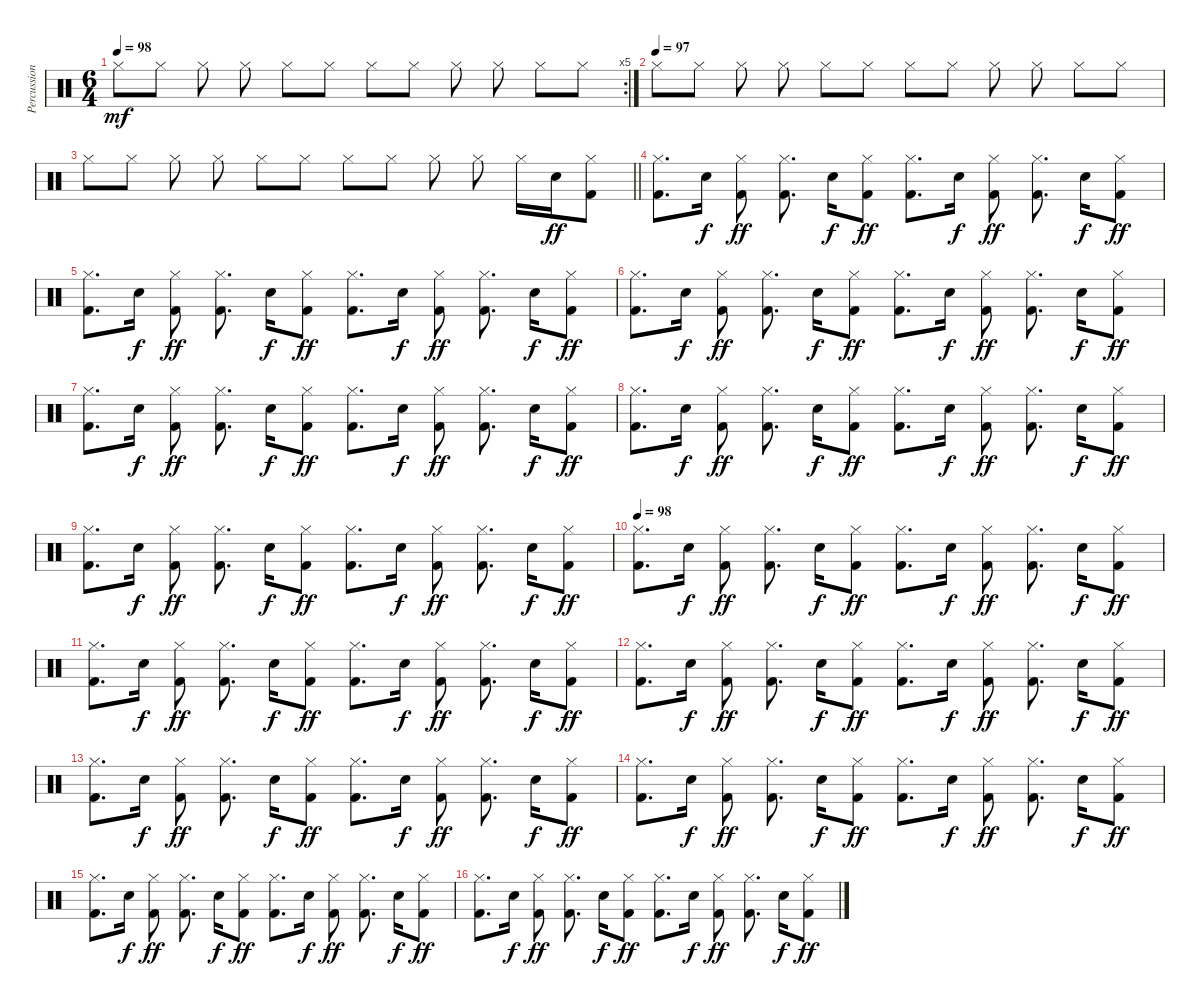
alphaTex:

\track ("Percussion" "Percussion") {instrument percussion}
\staff {score}
\articulation defaults
\rc 5
\ts (6 4)
\tempo 98
\clef neutral
\ks c "Hi-Hat (closed)".8{dy mf} "Hi-Hat (closed)".8 "Hi-Hat (closed)".8{beam split} "Hi-Hat (closed)".8 "Hi-Hat (closed)".8 "Hi-Hat (closed)".8 "Hi-Hat (closed)".8 "Hi-Hat (closed)".8 "Hi-Hat (closed)".8{beam split} "Hi-Hat (closed)".8 "Hi-Hat (closed)".8 "Hi-Hat (closed)".8
|
\tempo (97)
"Hi-Hat (closed)".8 "Hi-Hat (closed)".8 "Hi-Hat (closed)".8{beam split} "Hi-Hat (closed)".8 "Hi-Hat (closed)".8 "Hi-Hat (closed)".8 "Hi-Hat (closed)".8 "Hi-Hat (closed)".8 "Hi-Hat (closed)".8{beam split} "Hi-Hat (closed)".8 "Hi-Hat (closed)".8 "Hi-Hat (closed)".8 |
\barLineRight lightlight "Hi-Hat (closed)".8 "Hi-Hat (closed)".8 "Hi-Hat (closed)".8{beam split} "Hi-Hat (closed)".8 "Hi-Hat (closed)".8 "Hi-Hat (closed)".8 "Hi-Hat (closed)".8 "Hi-Hat (closed)".8 "Hi-Hat (closed)".8{beam split} "Hi-Hat (closed)".8 "Hi-Hat (closed)".16 "Electric Snare (hit)".16{dy ff}
("Hi-Hat (closed)" "Kick (hit) 2").8 |
("Hi-Hat (closed)" "Kick (hit) 2").8{d} "Electric Snare (hit)".16{dy f} ("Hi-Hat (closed)" "Kick (hit) 2").8{dy ff beam split} ("Hi-Hat (closed)" "Kick (hit) 2").8{d} "Electric Snare (hit)".16{dy f} ("Hi-Hat (closed)" "Kick (hit) 2").8{dy ff} ("Hi-Hat (closed)" "Kick (hit) 2").8{d} "Electric Snare (hit)".16{dy f} ("Hi-Hat (closed)" "Kick (hit) 2").8{dy ff beam split} ("Hi-Hat (closed)" "Kick (hit) 2").8{d} "Electric Snare (hit)".16{dy f} ("Hi-Hat (closed)" "Kick (hit) 2").8{dy ff} |
("Hi-Hat (closed)" "Kick (hit) 2").8{d} "Electric Snare (hit)".16{dy f} ("Hi-Hat (closed)" "Kick (hit) 2").8{dy ff beam split} ("Hi-Hat (closed)" "Kick (hit) 2").8{d} "Electric Snare (hit)".16{dy f} ("Hi-Hat (closed)" "Kick (hit) 2").8{dy ff} ("Hi-Hat (closed)" "Kick (hit) 2").8{d} "Electric Snare (hit)".16{dy f} ("Hi-Hat (closed)" "Kick (hit) 2").8{dy ff beam split} ("Hi-Hat (closed)" "Kick (hit) 2").8{d} "Electric Snare (hit)".16{dy f} ("Hi-Hat (closed)" "Kick (hit) 2").8{dy ff} |
("Hi-Hat (closed)" "Kick (hit) 2").8{d} "Electric Snare (hit)".16{dy f} ("Hi-Hat (closed)" "Kick (hit) 2").8{dy ff beam split} ("Hi-Hat (closed)" "Kick (hit) 2").8{d} "Electric Snare (hit)".16{dy f} ("Hi-Hat (closed)" "Kick (hit) 2").8{dy ff} ("Hi-Hat (closed)" "Kick (hit) 2").8{d} "Electric Snare (hit)".16{dy f} ("Hi-Hat (closed)" "Kick (hit) 2").8{dy ff beam split} ("Hi-Hat (closed)" "Kick (hit) 2").8{d} "Electric Snare (hit)".16{dy f} ("Hi-Hat (closed)" "Kick (hit) 2").8{dy ff} |
("Hi-Hat (closed)" "Kick (hit) 2").8{d} "Electric Snare (hit)".16{dy f} ("Hi-Hat (closed)" "Kick (hit) 2").8{dy ff beam split} ("Hi-Hat (closed)" "Kick (hit) 2").8{d} "Electric Snare (hit)".16{dy f} ("Hi-Hat (closed)" "Kick (hit) 2").8{dy ff} ("Hi-Hat (closed)" "Kick (hit) 2").8{d} "Electric Snare (hit)".16{dy f} ("Hi-Hat (closed)" "Kick (hit) 2").8{dy ff beam split} ("Hi-Hat (closed)" "Kick (hit) 2").8{d} "Electric Snare (hit)".16{dy f} ("Hi-Hat (closed)" "Kick (hit) 2").8{dy ff} |
("Hi-Hat (closed)" "Kick (hit) 2").8{d} "Electric Snare (hit)".16{dy f} ("Hi-Hat (closed)" "Kick (hit) 2").8{dy ff beam split} ("Hi-Hat (closed)" "Kick (hit) 2").8{d} "Electric Snare (hit)".16{dy f} ("Hi-Hat (closed)" "Kick (hit) 2").8{dy ff} ("Hi-Hat (closed)" "Kick (hit) 2").8{d} "Electric Snare (hit)".16{dy f} ("Hi-Hat (closed)" "Kick (hit) 2").8{dy ff beam split} ("Hi-Hat (closed)" "Kick (hit) 2").8{d} "Electric Snare (hit)".16{dy f} ("Hi-Hat (closed)" "Kick (hit) 2").8{dy ff} |
("Hi-Hat (closed)" "Kick (hit) 2").8{d} "Electric Snare (hit)".16{dy f} ("Hi-Hat (closed)" "Kick (hit) 2").8{dy ff beam split} ("Hi-Hat (closed)" "Kick (hit) 2").8{d} "Electric Snare (hit)".16{dy f} ("Hi-Hat (closed)" "Kick (hit) 2").8{dy ff} ("Hi-Hat (closed)" "Kick (hit) 2").8{d} "Electric Snare (hit)".16{dy f} ("Hi-Hat (closed)" "Kick (hit) 2").8{dy ff beam split} ("Hi-Hat (closed)" "Kick (hit) 2").8{d} "Electric Snare (hit)".16{dy f} ("Hi-Hat (closed)" "Kick (hit) 2").8{dy ff} |
\tempo 98
("Hi-Hat (closed)" "Kick (hit) 2").8{d} "Electric Snare (hit)".16{dy f} ("Hi-Hat (closed)" "Kick (hit) 2").8{dy ff beam split} ("Hi-Hat (closed)" "Kick (hit) 2").8{d} "Electric Snare (hit)".16{dy f} ("Hi-Hat (closed)" "Kick (hit) 2").8{dy ff} ("Hi-Hat (closed)" "Kick (hit) 2").8{d} "Electric Snare (hit)".16{dy f} ("Hi-Hat (closed)" "Kick (hit) 2").8{dy ff beam split} ("Hi-Hat (closed)" "Kick (hit) 2").8{d} "Electric Snare (hit)".16{dy f} ("Hi-Hat (closed)" "Kick (hit) 2").8{dy ff} |
("Hi-Hat (closed)" "Kick (hit) 2").8{d} "Electric Snare (hit)".16{dy f} ("Hi-Hat (closed)" "Kick (hit) 2").8{dy ff beam split} ("Hi-Hat (closed)" "Kick (hit) 2").8{d} "Electric Snare (hit)".16{dy f} ("Hi-Hat (closed)" "Kick (hit) 2").8{dy ff} ("Hi-Hat (closed)" "Kick (hit) 2").8{d} "Electric Snare (hit)".16{dy f} ("Hi-Hat (closed)" "Kick (hit) 2").8{dy ff beam split} ("Hi-Hat (closed)" "Kick (hit) 2").8{d} "Electric Snare (hit)".16{dy f} ("Hi-Hat (closed)" "Kick (hit) 2").8{dy ff} |
("Hi-Hat (closed)" "Kick (hit) 2").8{d} "Electric Snare (hit)".16{dy f} ("Hi-Hat (closed)" "Kick (hit) 2").8{dy ff beam split} ("Hi-Hat (closed)" "Kick (hit) 2").8{d} "Electric Snare (hit)".16{dy f} ("Hi-Hat (closed)" "Kick (hit) 2").8{dy ff} ("Hi-Hat (closed)" "Kick (hit) 2").8{d} "Electric Snare (hit)".16{dy f} ("Hi-Hat (closed)" "Kick (hit) 2").8{dy ff beam split} ("Hi-Hat (closed)" "Kick (hit) 2").8{d} "Electric Snare (hit)".16{dy f} ("Hi-Hat (closed)" "Kick (hit) 2").8{dy ff} |
("Hi-Hat (closed)" "Kick (hit) 2").8{d} "Electric Snare (hit)".16{dy f} ("Hi-Hat (closed)" "Kick (hit) 2").8{dy ff beam split} ("Hi-Hat (closed)" "Kick (hit) 2").8{d} "Electric Snare (hit)".16{dy f} ("Hi-Hat (closed)" "Kick (hit) 2").8{dy ff} ("Hi-Hat (closed)" "Kick (hit) 2").8{d} "Electric Snare (hit)".16{dy f} ("Hi-Hat (closed)" "Kick (hit) 2").8{dy ff beam split} ("Hi-Hat (closed)" "Kick (hit) 2").8{d} "Electric Snare (hit)".16{dy f} ("Hi-Hat (closed)" "Kick (hit) 2").8{dy ff} |
("Hi-Hat (closed)" "Kick (hit) 2").8{d} "Electric Snare (hit)".16{dy f} ("Hi-Hat (closed)" "Kick (hit) 2").8{dy ff beam split} ("Hi-Hat (closed)" "Kick (hit) 2").8{d} "Electric Snare (hit)".16{dy f} ("Hi-Hat (closed)" "Kick (hit) 2").8{dy ff} ("Hi-Hat (closed)" "Kick (hit) 2").8{d} "Electric Snare (hit)".16{dy f} ("Hi-Hat (closed)" "Kick (hit) 2").8{dy ff beam split} ("Hi-Hat (closed)" "Kick (hit) 2").8{d} "Electric Snare (hit)".16{dy f} ("Hi-Hat (closed)" "Kick (hit) 2").8{dy ff} |
("Hi-Hat (closed)" "Kick (hit) 2").8{d} "Electric Snare (hit)".16{dy f} ("Hi-Hat (closed)" "Kick (hit) 2").8{dy ff beam split} ("Hi-Hat (closed)" "Kick (hit) 2").8{d} "Electric Snare (hit)".16{dy f} ("Hi-Hat (closed)" "Kick (hit) 2").8{dy ff} ("Hi-Hat (closed)" "Kick (hit) 2").8{d} "Electric Snare (hit)".16{dy f} ("Hi-Hat (closed)" "Kick (hit) 2").8{dy ff beam split} ("Hi-Hat (closed)" "Kick (hit) 2").8{d} "Electric Snare (hit)".16{dy f} ("Hi-Hat (closed)" "Kick (hit) 2").8{dy ff} |
("Hi-Hat (closed)" "Kick (hit) 2").8{d} "Electric Snare (hit)".16{dy f} ("Hi-Hat (closed)" "Kick (hit) 2").8{dy ff beam split} ("Hi-Hat (closed)" "Kick (hit) 2").8{d} "Electric Snare (hit)".16{dy f} ("Hi-Hat (closed)" "Kick (hit) 2").8{dy ff} ("Hi-Hat (closed)" "Kick (hit) 2").8{d} "Electric Snare (hit)".16{dy f} ("Hi-Hat (closed)" "Kick (hit) 2").8{dy ff beam split} ("Hi-Hat (closed)" "Kick (hit) 2").8{d} "Electric Snare (hit)".16{dy f} ("Hi-Hat (closed)" "Kick (hit) 2").8{dy ff}
